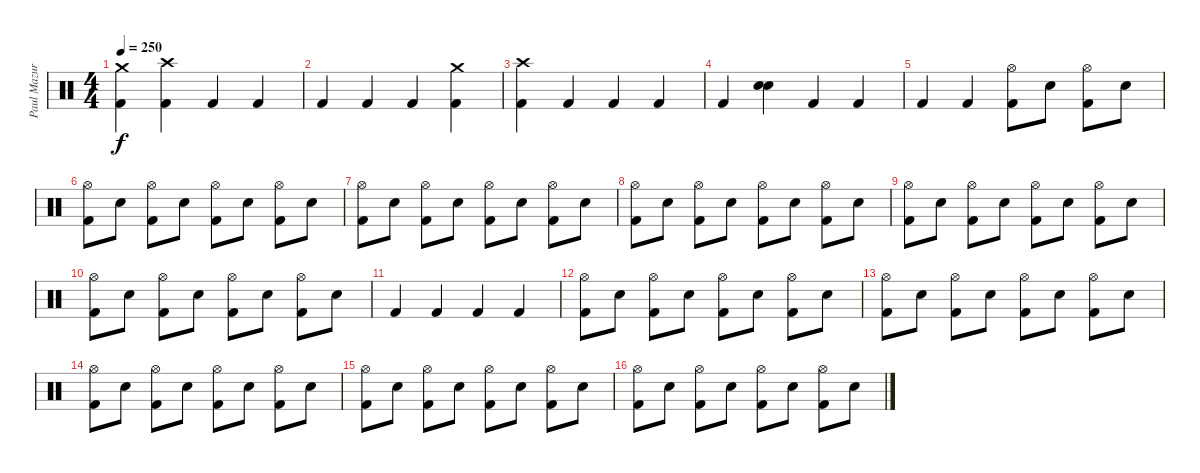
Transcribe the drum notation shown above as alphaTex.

\track ("Paul Mazurkiewicz" "Paul Mazur") {instrument percussion}
\staff {score}
\articulation defaults
\ts (4 4)
\tempo 250
\clef neutral
\ks c
("Crash medium (hit)" "Kick (hit) 2").4{dy f} ("Crash high (hit)" "Kick (hit) 2").4 "Kick (hit) 2".4 "Kick (hit) 2".4 |
"Kick (hit) 2".4 "Kick (hit) 2".4 "Kick (hit) 2".4 ("Crash medium (hit)" "Kick (hit) 2").4 |
("Crash high (hit)" "Kick (hit) 2").4 "Kick (hit) 2".4 "Kick (hit) 2".4 "Kick (hit) 2".4 |
"Kick (hit) 2".4 ("Electric Snare (hit)" "Snare (hit) 2").4 "Kick (hit) 2".4 "Kick (hit) 2".4 |
"Kick (hit) 2".4 "Kick (hit) 2".4 ("Hi-Hat (open)" "Kick (hit) 2").8 "Electric Snare (hit)".8 ("Hi-Hat (open)" "Kick (hit) 2").8 "Electric Snare (hit)".8 |
("Hi-Hat (open)" "Kick (hit) 2").8 "Electric Snare (hit)".8 ("Hi-Hat (open)" "Kick (hit) 2").8 "Electric Snare (hit)".8 ("Hi-Hat (open)" "Kick (hit) 2").8 "Electric Snare (hit)".8 ("Hi-Hat (open)" "Kick (hit) 2").8 "Electric Snare (hit)".8 |
("Hi-Hat (open)" "Kick (hit) 2").8 "Electric Snare (hit)".8 ("Hi-Hat (open)" "Kick (hit) 2").8 "Electric Snare (hit)".8 ("Hi-Hat (open)" "Kick (hit) 2").8 "Electric Snare (hit)".8 ("Hi-Hat (open)" "Kick (hit) 2").8 "Electric Snare (hit)".8 |
("Hi-Hat (open)" "Kick (hit) 2").8 "Electric Snare (hit)".8 ("Hi-Hat (open)" "Kick (hit) 2").8 "Electric Snare (hit)".8 ("Hi-Hat (open)" "Kick (hit) 2").8 "Electric Snare (hit)".8 ("Hi-Hat (open)" "Kick (hit) 2").8 "Electric Snare (hit)".8 |
("Hi-Hat (open)" "Kick (hit) 2").8 "Electric Snare (hit)".8 ("Hi-Hat (open)" "Kick (hit) 2").8 "Electric Snare (hit)".8 ("Hi-Hat (open)" "Kick (hit) 2").8 "Electric Snare (hit)".8 ("Hi-Hat (open)" "Kick (hit) 2").8 "Electric Snare (hit)".8 |
("Hi-Hat (open)" "Kick (hit) 2").8 "Electric Snare (hit)".8 ("Hi-Hat (open)" "Kick (hit) 2").8 "Electric Snare (hit)".8 ("Hi-Hat (open)" "Kick (hit) 2").8 "Electric Snare (hit)".8 ("Hi-Hat (open)" "Kick (hit) 2").8 "Electric Snare (hit)".8 |
"Kick (hit) 2".4 "Kick (hit) 2".4 "Kick (hit) 2".4 "Kick (hit) 2".4 |
("Hi-Hat (open)" "Kick (hit) 2").8 "Electric Snare (hit)".8 ("Hi-Hat (open)" "Kick (hit) 2").8 "Electric Snare (hit)".8 ("Hi-Hat (open)" "Kick (hit) 2").8 "Electric Snare (hit)".8 ("Hi-Hat (open)" "Kick (hit) 2").8 "Electric Snare (hit)".8 |
("Hi-Hat (open)" "Kick (hit) 2").8 "Electric Snare (hit)".8 ("Hi-Hat (open)" "Kick (hit) 2").8 "Electric Snare (hit)".8 ("Hi-Hat (open)" "Kick (hit) 2").8 "Electric Snare (hit)".8 ("Hi-Hat (open)" "Kick (hit) 2").8 "Electric Snare (hit)".8 |
("Hi-Hat (open)" "Kick (hit) 2").8 "Electric Snare (hit)".8 ("Hi-Hat (open)" "Kick (hit) 2").8 "Electric Snare (hit)".8 ("Hi-Hat (open)" "Kick (hit) 2").8 "Electric Snare (hit)".8 ("Hi-Hat (open)" "Kick (hit) 2").8 "Electric Snare (hit)".8 |
("Hi-Hat (open)" "Kick (hit) 2").8 "Electric Snare (hit)".8 ("Hi-Hat (open)" "Kick (hit) 2").8 "Electric Snare (hit)".8 ("Hi-Hat (open)" "Kick (hit) 2").8 "Electric Snare (hit)".8 ("Hi-Hat (open)" "Kick (hit) 2").8 "Electric Snare (hit)".8 |
("Hi-Hat (open)" "Kick (hit) 2").8 "Electric Snare (hit)".8 ("Hi-Hat (open)" "Kick (hit) 2").8 "Electric Snare (hit)".8 ("Hi-Hat (open)" "Kick (hit) 2").8 "Electric Snare (hit)".8 ("Hi-Hat (open)" "Kick (hit) 2").8 "Electric Snare (hit)".8
